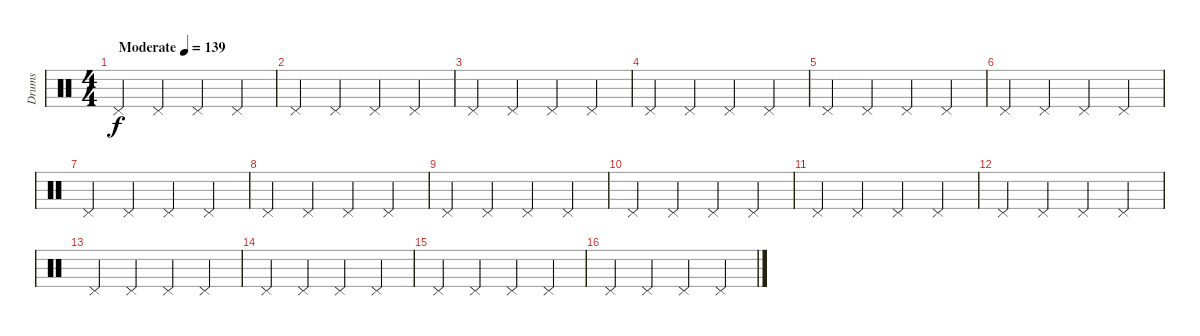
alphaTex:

\track ("Drums" "Drums") {instrument percussion}
\staff {score}
\articulation defaults
\ts (4 4)
\tempo (139 "Moderate")
\clef neutral
\ks c "Pedal Hi-Hat (hit)".4{dy f} "Pedal Hi-Hat (hit)".4 "Pedal Hi-Hat (hit)".4 "Pedal Hi-Hat (hit)".4
|
"Pedal Hi-Hat (hit)".4 "Pedal Hi-Hat (hit)".4 "Pedal Hi-Hat (hit)".4 "Pedal Hi-Hat (hit)".4 |
"Pedal Hi-Hat (hit)".4 "Pedal Hi-Hat (hit)".4 "Pedal Hi-Hat (hit)".4 "Pedal Hi-Hat (hit)".4 |
"Pedal Hi-Hat (hit)".4 "Pedal Hi-Hat (hit)".4 "Pedal Hi-Hat (hit)".4 "Pedal Hi-Hat (hit)".4 |
"Pedal Hi-Hat (hit)".4 "Pedal Hi-Hat (hit)".4 "Pedal Hi-Hat (hit)".4 "Pedal Hi-Hat (hit)".4 |
"Pedal Hi-Hat (hit)".4 "Pedal Hi-Hat (hit)".4 "Pedal Hi-Hat (hit)".4 "Pedal Hi-Hat (hit)".4 |
"Pedal Hi-Hat (hit)".4 "Pedal Hi-Hat (hit)".4 "Pedal Hi-Hat (hit)".4 "Pedal Hi-Hat (hit)".4 |
"Pedal Hi-Hat (hit)".4 "Pedal Hi-Hat (hit)".4 "Pedal Hi-Hat (hit)".4 "Pedal Hi-Hat (hit)".4 |
"Pedal Hi-Hat (hit)".4 "Pedal Hi-Hat (hit)".4 "Pedal Hi-Hat (hit)".4 "Pedal Hi-Hat (hit)".4 |
"Pedal Hi-Hat (hit)".4 "Pedal Hi-Hat (hit)".4 "Pedal Hi-Hat (hit)".4 "Pedal Hi-Hat (hit)".4 |
"Pedal Hi-Hat (hit)".4 "Pedal Hi-Hat (hit)".4 "Pedal Hi-Hat (hit)".4 "Pedal Hi-Hat (hit)".4 |
"Pedal Hi-Hat (hit)".4 "Pedal Hi-Hat (hit)".4 "Pedal Hi-Hat (hit)".4 "Pedal Hi-Hat (hit)".4 |
"Pedal Hi-Hat (hit)".4 "Pedal Hi-Hat (hit)".4 "Pedal Hi-Hat (hit)".4 "Pedal Hi-Hat (hit)".4 |
"Pedal Hi-Hat (hit)".4 "Pedal Hi-Hat (hit)".4 "Pedal Hi-Hat (hit)".4 "Pedal Hi-Hat (hit)".4 |
"Pedal Hi-Hat (hit)".4 "Pedal Hi-Hat (hit)".4 "Pedal Hi-Hat (hit)".4 "Pedal Hi-Hat (hit)".4 |
"Pedal Hi-Hat (hit)".4 "Pedal Hi-Hat (hit)".4 "Pedal Hi-Hat (hit)".4 "Pedal Hi-Hat (hit)".4
